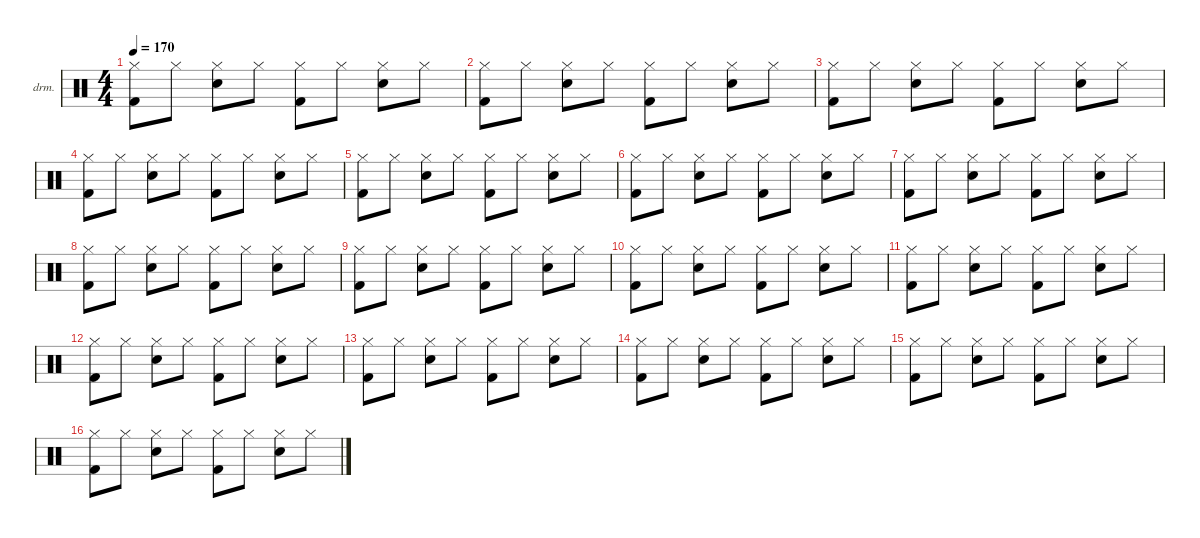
\hideDynamics
\bracketExtendMode nobrackets
\firstSystemTrackNameOrientation horizontal
\otherSystemsTrackNameOrientation horizontal
\track ("韩子钰" "drm.") {instrument percussion}
\staff {score}
\articulation defaults
\ts (4 4)
\tempo 170
\clef neutral
\ks c
("Hi-Hat (closed)" "Kick (hit) 2").8{dy f} "Hi-Hat (closed)".8 ("Hi-Hat (closed)" "Snare (hit) 2").8 "Hi-Hat (closed)".8 ("Hi-Hat (closed)" "Kick (hit) 2").8 "Hi-Hat (closed)".8 ("Hi-Hat (closed)" "Snare (hit) 2").8 "Hi-Hat (closed)".8 |
("Hi-Hat (closed)" "Kick (hit) 2").8 "Hi-Hat (closed)".8 ("Hi-Hat (closed)" "Snare (hit) 2").8 "Hi-Hat (closed)".8 ("Hi-Hat (closed)" "Kick (hit) 2").8 "Hi-Hat (closed)".8 ("Hi-Hat (closed)" "Snare (hit) 2").8 "Hi-Hat (closed)".8 |
("Hi-Hat (closed)" "Kick (hit) 2").8 "Hi-Hat (closed)".8 ("Hi-Hat (closed)" "Snare (hit) 2").8 "Hi-Hat (closed)".8 ("Hi-Hat (closed)" "Kick (hit) 2").8 "Hi-Hat (closed)".8 ("Hi-Hat (closed)" "Snare (hit) 2").8 "Hi-Hat (closed)".8 |
("Hi-Hat (closed)" "Kick (hit) 2").8 "Hi-Hat (closed)".8 ("Hi-Hat (closed)" "Snare (hit) 2").8 "Hi-Hat (closed)".8 ("Hi-Hat (closed)" "Kick (hit) 2").8 "Hi-Hat (closed)".8 ("Hi-Hat (closed)" "Snare (hit) 2").8 "Hi-Hat (closed)".8 |
("Hi-Hat (closed)" "Kick (hit) 2").8 "Hi-Hat (closed)".8 ("Hi-Hat (closed)" "Snare (hit) 2").8 "Hi-Hat (closed)".8 ("Hi-Hat (closed)" "Kick (hit) 2").8 "Hi-Hat (closed)".8 ("Hi-Hat (closed)" "Snare (hit) 2").8 "Hi-Hat (closed)".8 |
("Hi-Hat (closed)" "Kick (hit) 2").8 "Hi-Hat (closed)".8 ("Hi-Hat (closed)" "Snare (hit) 2").8 "Hi-Hat (closed)".8 ("Hi-Hat (closed)" "Kick (hit) 2").8 "Hi-Hat (closed)".8 ("Hi-Hat (closed)" "Snare (hit) 2").8 "Hi-Hat (closed)".8 |
("Hi-Hat (closed)" "Kick (hit) 2").8 "Hi-Hat (closed)".8 ("Hi-Hat (closed)" "Snare (hit) 2").8 "Hi-Hat (closed)".8 ("Hi-Hat (closed)" "Kick (hit) 2").8 "Hi-Hat (closed)".8 ("Hi-Hat (closed)" "Snare (hit) 2").8 "Hi-Hat (closed)".8 |
("Hi-Hat (closed)" "Kick (hit) 2").8 "Hi-Hat (closed)".8 ("Hi-Hat (closed)" "Snare (hit) 2").8 "Hi-Hat (closed)".8 ("Hi-Hat (closed)" "Kick (hit) 2").8 "Hi-Hat (closed)".8 ("Hi-Hat (closed)" "Snare (hit) 2").8 "Hi-Hat (closed)".8 |
("Hi-Hat (closed)" "Kick (hit) 2").8 "Hi-Hat (closed)".8 ("Hi-Hat (closed)" "Snare (hit) 2").8 "Hi-Hat (closed)".8 ("Hi-Hat (closed)" "Kick (hit) 2").8 "Hi-Hat (closed)".8 ("Hi-Hat (closed)" "Snare (hit) 2").8 "Hi-Hat (closed)".8 |
("Hi-Hat (closed)" "Kick (hit) 2").8 "Hi-Hat (closed)".8 ("Hi-Hat (closed)" "Snare (hit) 2").8 "Hi-Hat (closed)".8 ("Hi-Hat (closed)" "Kick (hit) 2").8 "Hi-Hat (closed)".8 ("Hi-Hat (closed)" "Snare (hit) 2").8 "Hi-Hat (closed)".8 |
("Hi-Hat (closed)" "Kick (hit) 2").8 "Hi-Hat (closed)".8 ("Hi-Hat (closed)" "Snare (hit) 2").8 "Hi-Hat (closed)".8 ("Hi-Hat (closed)" "Kick (hit) 2").8 "Hi-Hat (closed)".8 ("Hi-Hat (closed)" "Snare (hit) 2").8 "Hi-Hat (closed)".8 |
("Hi-Hat (closed)" "Kick (hit) 2").8 "Hi-Hat (closed)".8 ("Hi-Hat (closed)" "Snare (hit) 2").8 "Hi-Hat (closed)".8 ("Hi-Hat (closed)" "Kick (hit) 2").8 "Hi-Hat (closed)".8 ("Hi-Hat (closed)" "Snare (hit) 2").8 "Hi-Hat (closed)".8 |
("Hi-Hat (closed)" "Kick (hit) 2").8 "Hi-Hat (closed)".8 ("Hi-Hat (closed)" "Snare (hit) 2").8 "Hi-Hat (closed)".8 ("Hi-Hat (closed)" "Kick (hit) 2").8 "Hi-Hat (closed)".8 ("Hi-Hat (closed)" "Snare (hit) 2").8 "Hi-Hat (closed)".8 |
("Hi-Hat (closed)" "Kick (hit) 2").8 "Hi-Hat (closed)".8 ("Hi-Hat (closed)" "Snare (hit) 2").8 "Hi-Hat (closed)".8 ("Hi-Hat (closed)" "Kick (hit) 2").8 "Hi-Hat (closed)".8 ("Hi-Hat (closed)" "Snare (hit) 2").8 "Hi-Hat (closed)".8 |
("Hi-Hat (closed)" "Kick (hit) 2").8 "Hi-Hat (closed)".8 ("Hi-Hat (closed)" "Snare (hit) 2").8 "Hi-Hat (closed)".8 ("Hi-Hat (closed)" "Kick (hit) 2").8 "Hi-Hat (closed)".8 ("Hi-Hat (closed)" "Snare (hit) 2").8 "Hi-Hat (closed)".8 |
("Hi-Hat (closed)" "Kick (hit) 2").8 "Hi-Hat (closed)".8 ("Hi-Hat (closed)" "Snare (hit) 2").8 "Hi-Hat (closed)".8 ("Hi-Hat (closed)" "Kick (hit) 2").8 "Hi-Hat (closed)".8 ("Hi-Hat (closed)" "Snare (hit) 2").8 "Hi-Hat (closed)".8
